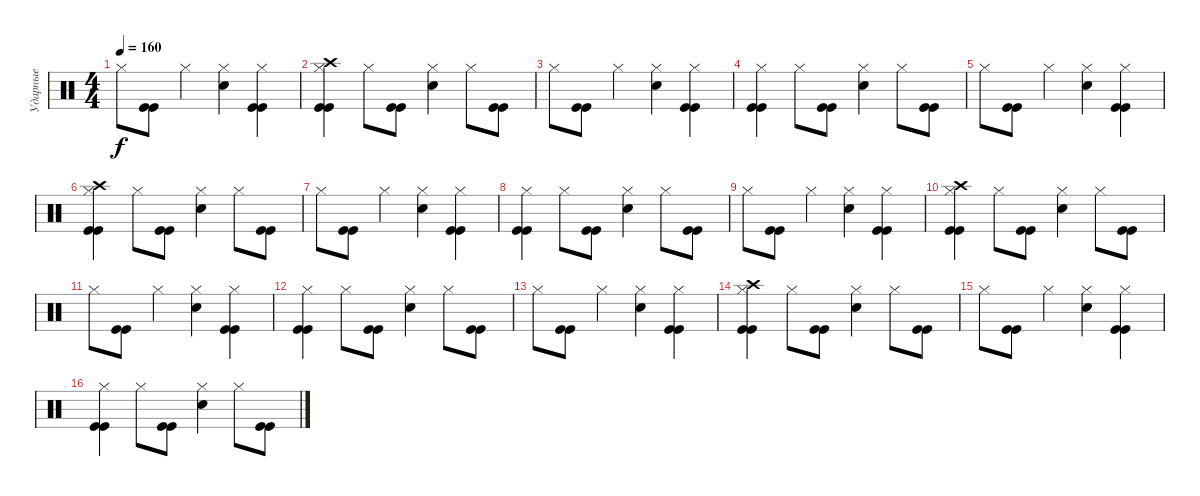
\track ("Ударные" "Ударные") {instrument percussion}
\staff {score}
\articulation defaults
\ts (4 4)
\tempo 160
\clef neutral
\ks c "Hi-Hat (closed)".8{dy f}
("Kick (hit)" "Kick (hit)").8 "Hi-Hat (closed)".4 ("Hi-Hat (closed)" "Snare (hit) 2").4 ("Hi-Hat (closed)" "Kick (hit)" "Kick (hit)").4 |
("Crash high (hit)" "Hi-Hat (closed)" "Kick (hit)" "Kick (hit)").4 "Hi-Hat (closed)".8 ("Kick (hit)" "Kick (hit)").8 ("Hi-Hat (closed)" "Snare (hit) 2").4 "Hi-Hat (closed)".8 ("Kick (hit)" "Kick (hit)").8 |
"Hi-Hat (closed)".8 ("Kick (hit)" "Kick (hit)").8 "Hi-Hat (closed)".4 ("Hi-Hat (closed)" "Snare (hit) 2").4 ("Hi-Hat (closed)" "Kick (hit)" "Kick (hit)").4 |
("Hi-Hat (closed)" "Kick (hit)" "Kick (hit)").4 "Hi-Hat (closed)".8 ("Kick (hit)" "Kick (hit)").8 ("Hi-Hat (closed)" "Snare (hit) 2").4 "Hi-Hat (closed)".8 ("Kick (hit)" "Kick (hit)").8 |
"Hi-Hat (closed)".8 ("Kick (hit)" "Kick (hit)").8 "Hi-Hat (closed)".4 ("Hi-Hat (closed)" "Snare (hit) 2").4 ("Hi-Hat (closed)" "Kick (hit)" "Kick (hit)").4 |
("Crash high (hit)" "Hi-Hat (closed)" "Kick (hit)" "Kick (hit)").4 "Hi-Hat (closed)".8 ("Kick (hit)" "Kick (hit)").8 ("Hi-Hat (closed)" "Snare (hit) 2").4 "Hi-Hat (closed)".8 ("Kick (hit)" "Kick (hit)").8 |
"Hi-Hat (closed)".8 ("Kick (hit)" "Kick (hit)").8 "Hi-Hat (closed)".4 ("Hi-Hat (closed)" "Snare (hit) 2").4 ("Hi-Hat (closed)" "Kick (hit)" "Kick (hit)").4 |
("Hi-Hat (closed)" "Kick (hit)" "Kick (hit)").4 "Hi-Hat (closed)".8 ("Kick (hit)" "Kick (hit)").8 ("Hi-Hat (closed)" "Snare (hit) 2").4 "Hi-Hat (closed)".8 ("Kick (hit)" "Kick (hit)").8 |
"Hi-Hat (closed)".8 ("Kick (hit)" "Kick (hit)").8 "Hi-Hat (closed)".4 ("Hi-Hat (closed)" "Snare (hit) 2").4 ("Hi-Hat (closed)" "Kick (hit)" "Kick (hit)").4 |
("Crash high (hit)" "Hi-Hat (closed)" "Kick (hit)" "Kick (hit)").4 "Hi-Hat (closed)".8 ("Kick (hit)" "Kick (hit)").8 ("Hi-Hat (closed)" "Snare (hit) 2").4 "Hi-Hat (closed)".8 ("Kick (hit)" "Kick (hit)").8 |
"Hi-Hat (closed)".8 ("Kick (hit)" "Kick (hit)").8 "Hi-Hat (closed)".4 ("Hi-Hat (closed)" "Snare (hit) 2").4 ("Hi-Hat (closed)" "Kick (hit)" "Kick (hit)").4 |
("Hi-Hat (closed)" "Kick (hit)" "Kick (hit)").4 "Hi-Hat (closed)".8 ("Kick (hit)" "Kick (hit)").8 ("Hi-Hat (closed)" "Snare (hit) 2").4 "Hi-Hat (closed)".8 ("Kick (hit)" "Kick (hit)").8 |
"Hi-Hat (closed)".8 ("Kick (hit)" "Kick (hit)").8 "Hi-Hat (closed)".4 ("Hi-Hat (closed)" "Snare (hit) 2").4 ("Hi-Hat (closed)" "Kick (hit)" "Kick (hit)").4 |
("Crash high (hit)" "Hi-Hat (closed)" "Kick (hit)" "Kick (hit)").4 "Hi-Hat (closed)".8 ("Kick (hit)" "Kick (hit)").8 ("Hi-Hat (closed)" "Snare (hit) 2").4 "Hi-Hat (closed)".8 ("Kick (hit)" "Kick (hit)").8 |
"Hi-Hat (closed)".8 ("Kick (hit)" "Kick (hit)").8 "Hi-Hat (closed)".4 ("Hi-Hat (closed)" "Snare (hit) 2").4 ("Hi-Hat (closed)" "Kick (hit)" "Kick (hit)").4 |
("Hi-Hat (closed)" "Kick (hit)" "Kick (hit)").4 "Hi-Hat (closed)".8 ("Kick (hit)" "Kick (hit)").8 ("Hi-Hat (closed)" "Snare (hit) 2").4 "Hi-Hat (closed)".8 ("Kick (hit)" "Kick (hit)").8
